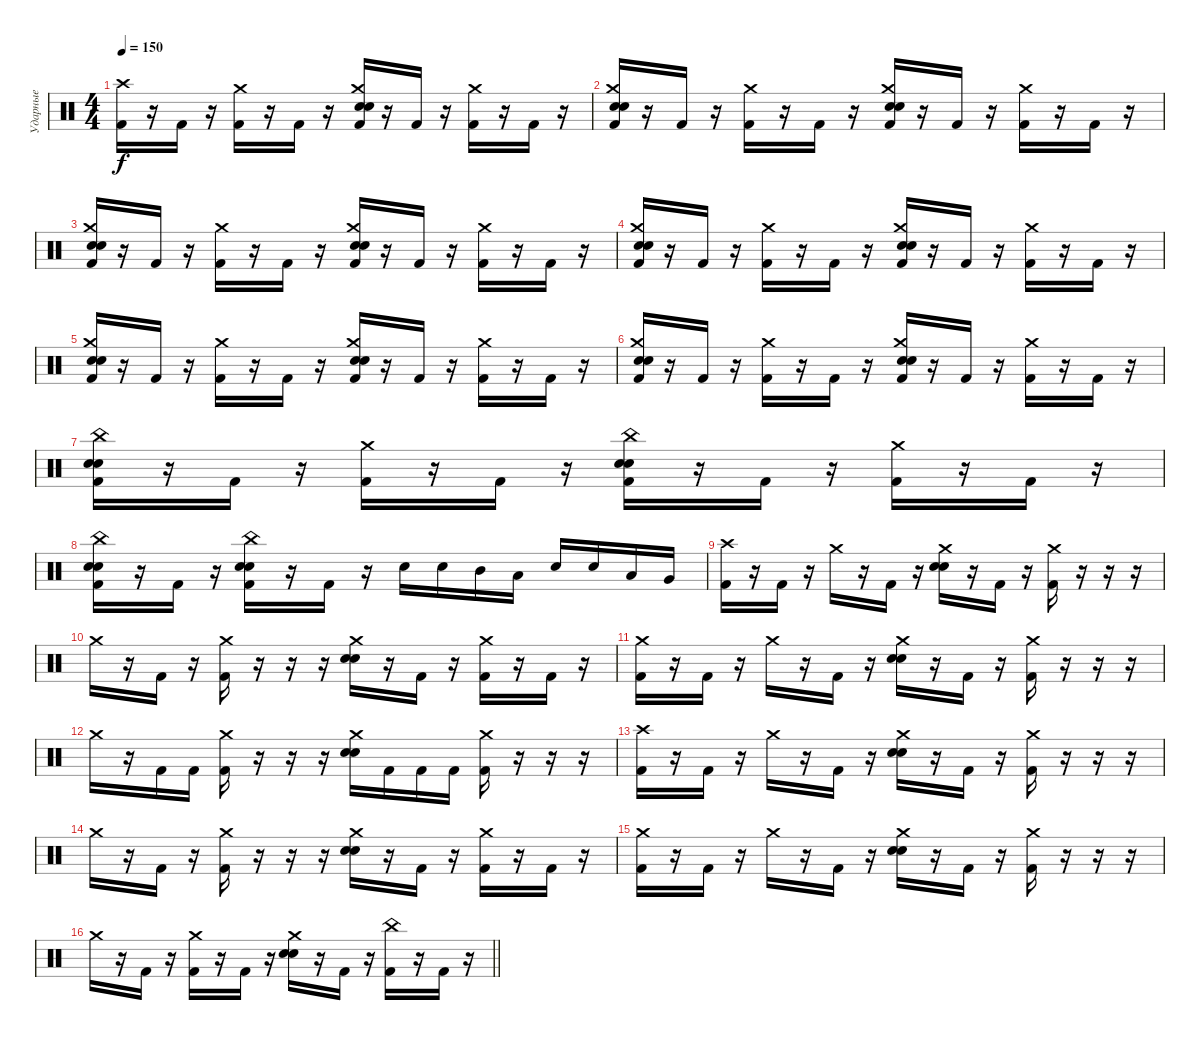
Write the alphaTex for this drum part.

\track ("Ударные" "Ударные") {solo instrument percussion}
\staff {score}
\articulation defaults
\ts (4 4)
\tempo 150
\clef neutral
\ks c
("Crash high (hit)" "Kick (hit) 2").16{dy f} r.16 "Kick (hit) 2".16 r.16 ("Crash medium (hit)" "Kick (hit) 2").16 r.16 "Kick (hit) 2".16 r.16 ("Crash medium (hit)" "Electric Snare (hit)" "Snare (hit) 2" "Kick (hit) 2").16 r.16 "Kick (hit) 2".16 r.16 ("Crash medium (hit)" "Kick (hit) 2").16 r.16 "Kick (hit) 2".16 r.16 |
("Crash medium (hit)" "Electric Snare (hit)" "Snare (hit) 2" "Kick (hit) 2").16 r.16 "Kick (hit) 2".16 r.16 ("Crash medium (hit)" "Kick (hit) 2").16 r.16 "Kick (hit) 2".16 r.16 ("Crash medium (hit)" "Electric Snare (hit)" "Snare (hit) 2" "Kick (hit) 2").16 r.16 "Kick (hit) 2".16 r.16 ("Crash medium (hit)" "Kick (hit) 2").16 r.16 "Kick (hit) 2".16 r.16 |
("Crash medium (hit)" "Electric Snare (hit)" "Snare (hit) 2" "Kick (hit) 2").16 r.16 "Kick (hit) 2".16 r.16 ("Crash medium (hit)" "Kick (hit) 2").16 r.16 "Kick (hit) 2".16 r.16 ("Crash medium (hit)" "Electric Snare (hit)" "Snare (hit) 2" "Kick (hit) 2").16 r.16 "Kick (hit) 2".16 r.16 ("Crash medium (hit)" "Kick (hit) 2").16 r.16 "Kick (hit) 2".16 r.16 |
("Crash medium (hit)" "Electric Snare (hit)" "Snare (hit) 2" "Kick (hit) 2").16 r.16 "Kick (hit) 2".16 r.16 ("Crash medium (hit)" "Kick (hit) 2").16 r.16 "Kick (hit) 2".16 r.16 ("Crash medium (hit)" "Electric Snare (hit)" "Snare (hit) 2" "Kick (hit) 2").16 r.16 "Kick (hit) 2".16 r.16 ("Crash medium (hit)" "Kick (hit) 2").16 r.16 "Kick (hit) 2".16 r.16 |
("Crash medium (hit)" "Electric Snare (hit)" "Snare (hit) 2" "Kick (hit) 2").16 r.16 "Kick (hit) 2".16 r.16 ("Crash medium (hit)" "Kick (hit) 2").16 r.16 "Kick (hit) 2".16 r.16 ("Crash medium (hit)" "Electric Snare (hit)" "Snare (hit) 2" "Kick (hit) 2").16 r.16 "Kick (hit) 2".16 r.16 ("Crash medium (hit)" "Kick (hit) 2").16 r.16 "Kick (hit) 2".16 r.16 |
("Crash medium (hit)" "Electric Snare (hit)" "Snare (hit) 2" "Kick (hit) 2").16 r.16 "Kick (hit) 2".16 r.16 ("Crash medium (hit)" "Kick (hit) 2").16 r.16 "Kick (hit) 2".16 r.16 ("Crash medium (hit)" "Electric Snare (hit)" "Snare (hit) 2" "Kick (hit) 2").16 r.16 "Kick (hit) 2".16 r.16 ("Crash medium (hit)" "Kick (hit) 2").16 r.16 "Kick (hit) 2".16 r.16 |
("China (hit)" "Electric Snare (hit)" "Snare (hit) 2" "Kick (hit) 2").16 r.16 "Kick (hit) 2".16 r.16 ("Crash medium (hit)" "Kick (hit) 2").16 r.16 "Kick (hit) 2".16 r.16 ("China (hit)" "Electric Snare (hit)" "Snare (hit) 2" "Kick (hit) 2").16 r.16 "Kick (hit) 2".16 r.16 ("Crash medium (hit)" "Kick (hit) 2").16 r.16 "Kick (hit) 2".16 r.16 |
("China (hit)" "Electric Snare (hit)" "Snare (hit) 2" "Kick (hit) 2").16 r.16 "Kick (hit) 2".16 r.16 ("China (hit)" "Electric Snare (hit)" "Snare (hit) 2" "Kick (hit) 2").16 r.16 "Kick (hit) 2".16 r.16 "Snare (hit) 2".16 "Snare (hit) 2".16 "Mid Tom (hit)".16 "Low Tom (hit)".16 "Snare (hit) 2".16 "Snare (hit) 2".16 "Low Tom (hit)".16 "Very Low Tom (hit)".16 |
("Crash high (hit)" "Kick (hit) 2").16 r.16 "Kick (hit) 2".16 r.16 "Crash medium (hit)".16 r.16 "Kick (hit) 2".16 r.16 ("Crash medium (hit)" "Electric Snare (hit)" "Snare (hit) 2").16 r.16 "Kick (hit) 2".16 r.16 ("Crash medium (hit)" "Kick (hit) 2").16 r.16 r.16 r.16 |
"Crash medium (hit)".16 r.16 "Kick (hit) 2".16 r.16 ("Crash medium (hit)" "Kick (hit) 2").16 r.16 r.16 r.16 ("Crash medium (hit)" "Electric Snare (hit)" "Snare (hit) 2").16 r.16 "Kick (hit) 2".16 r.16 ("Crash medium (hit)" "Kick (hit) 2").16 r.16 "Kick (hit) 2".16 r.16 |
("Crash medium (hit)" "Kick (hit) 2").16 r.16 "Kick (hit) 2".16 r.16 "Crash medium (hit)".16 r.16 "Kick (hit) 2".16 r.16 ("Crash medium (hit)" "Electric Snare (hit)" "Snare (hit) 2").16 r.16 "Kick (hit) 2".16 r.16 ("Crash medium (hit)" "Kick (hit) 2").16 r.16 r.16 r.16 |
"Crash medium (hit)".16 r.16 "Kick (hit) 2".16 "Kick (hit) 2".16 ("Crash medium (hit)" "Kick (hit) 2").16 r.16 r.16 r.16 ("Crash medium (hit)" "Electric Snare (hit)" "Snare (hit) 2").16 "Kick (hit) 2".16 "Kick (hit) 2".16 "Kick (hit) 2".16 ("Crash medium (hit)" "Kick (hit) 2").16 r.16 r.16 r.16 |
("Crash high (hit)" "Kick (hit) 2").16 r.16 "Kick (hit) 2".16 r.16 "Crash medium (hit)".16 r.16 "Kick (hit) 2".16 r.16 ("Crash medium (hit)" "Electric Snare (hit)" "Snare (hit) 2").16 r.16 "Kick (hit) 2".16 r.16 ("Crash medium (hit)" "Kick (hit) 2").16 r.16 r.16 r.16 |
"Crash medium (hit)".16 r.16 "Kick (hit) 2".16 r.16 ("Crash medium (hit)" "Kick (hit) 2").16 r.16 r.16 r.16 ("Crash medium (hit)" "Electric Snare (hit)" "Snare (hit) 2").16 r.16 "Kick (hit) 2".16 r.16 ("Crash medium (hit)" "Kick (hit) 2").16 r.16 "Kick (hit) 2".16 r.16 |
("Crash medium (hit)" "Kick (hit) 2").16 r.16 "Kick (hit) 2".16 r.16 "Crash medium (hit)".16 r.16 "Kick (hit) 2".16 r.16 ("Crash medium (hit)" "Electric Snare (hit)" "Snare (hit) 2").16 r.16 "Kick (hit) 2".16 r.16 ("Crash medium (hit)" "Kick (hit) 2").16 r.16 r.16 r.16 |
\barLineRight lightlight "Crash medium (hit)".16
r.16 "Kick (hit) 2".16 r.16 ("Crash medium (hit)" "Kick (hit) 2").16 r.16 "Kick (hit) 2".16 r.16 ("Crash medium (hit)" "Electric Snare (hit)" "Snare (hit) 2").16 r.16 "Kick (hit) 2".16 r.16 ("China (hit)" "Kick (hit) 2").16 r.16 "Kick (hit) 2".16 r.16
